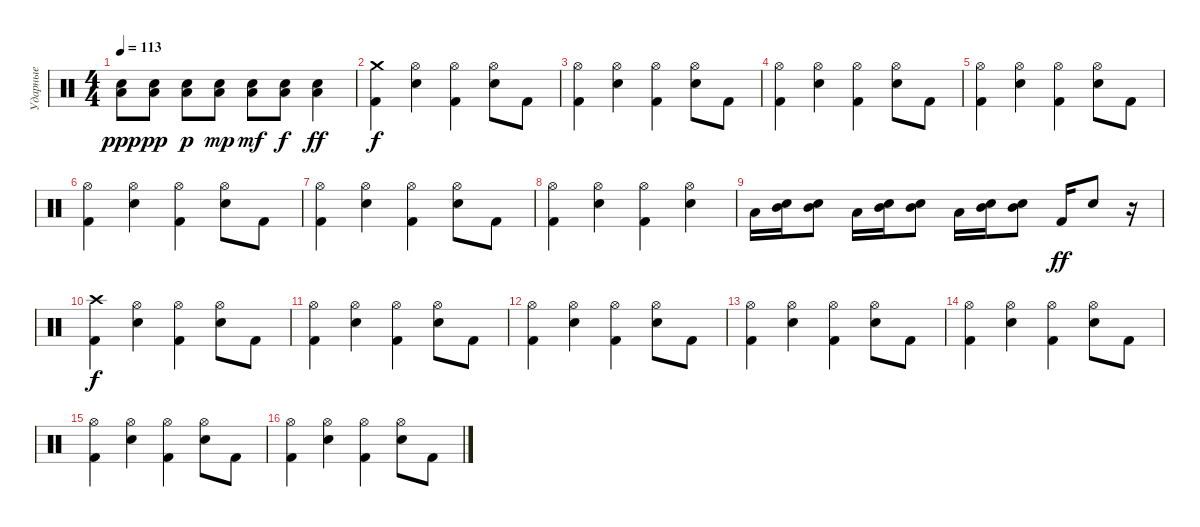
\track ("Ударные" "Ударные") {instrument percussion}
\staff {score}
\articulation defaults
\ts (4 4)
\tempo 113
\clef neutral
\ks c
("Electric Snare (hit)" "Low Tom (hit)").8{dy ppp} ("Electric Snare (hit)" "Low Tom (hit)").8{dy pp} ("Electric Snare (hit)" "Low Tom (hit)").8{dy p} ("Electric Snare (hit)" "Low Tom (hit)").8{dy mp} ("Electric Snare (hit)" "Low Tom (hit)").8{dy mf} ("Electric Snare (hit)" "Low Tom (hit)").8{dy f} ("Electric Snare (hit)" "Low Tom (hit)").4{dy ff} |
("Kick (hit) 2" "Crash medium (hit)").4{dy f} ("Electric Snare (hit)" "Hi-Hat (open)").4 ("Kick (hit) 2" "Hi-Hat (open)").4 ("Electric Snare (hit)" "Hi-Hat (open)").8 "Kick (hit) 2".8 |
("Kick (hit) 2" "Hi-Hat (open)").4 ("Electric Snare (hit)" "Hi-Hat (open)").4 ("Kick (hit) 2" "Hi-Hat (open)").4 ("Electric Snare (hit)" "Hi-Hat (open)").8 "Kick (hit) 2".8 |
("Kick (hit) 2" "Hi-Hat (open)").4 ("Electric Snare (hit)" "Hi-Hat (open)").4 ("Kick (hit) 2" "Hi-Hat (open)").4 ("Electric Snare (hit)" "Hi-Hat (open)").8 "Kick (hit) 2".8 |
("Kick (hit) 2" "Hi-Hat (open)").4 ("Electric Snare (hit)" "Hi-Hat (open)").4 ("Kick (hit) 2" "Hi-Hat (open)").4 ("Electric Snare (hit)" "Hi-Hat (open)").8 "Kick (hit) 2".8 |
("Kick (hit) 2" "Hi-Hat (open)").4 ("Electric Snare (hit)" "Hi-Hat (open)").4 ("Kick (hit) 2" "Hi-Hat (open)").4 ("Electric Snare (hit)" "Hi-Hat (open)").8 "Kick (hit) 2".8 |
("Kick (hit) 2" "Hi-Hat (open)").4 ("Electric Snare (hit)" "Hi-Hat (open)").4 ("Kick (hit) 2" "Hi-Hat (open)").4 ("Electric Snare (hit)" "Hi-Hat (open)").8 "Kick (hit) 2".8 |
("Kick (hit) 2" "Hi-Hat (open)").4 ("Electric Snare (hit)" "Hi-Hat (open)").4 ("Kick (hit) 2" "Hi-Hat (open)").4 ("Electric Snare (hit)" "Hi-Hat (open)").4 |
"Low Tom (hit)".16 ("Mid Tom (hit)" "Electric Snare (hit)").16 ("Mid Tom (hit)" "Electric Snare (hit)").8 "Low Tom (hit)".16 ("Mid Tom (hit)" "Electric Snare (hit)").16 ("Mid Tom (hit)" "Electric Snare (hit)").8 "Low Tom (hit)".16 ("Mid Tom (hit)" "Electric Snare (hit)").16 ("Mid Tom (hit)" "Electric Snare (hit)").8 "Kick (hit) 2".16{dy ff} "Electric Snare (hit)".8 r.16 |
("Kick (hit) 2" "Crash high (hit)").4{dy f} ("Electric Snare (hit)" "Hi-Hat (open)").4 ("Kick (hit) 2" "Hi-Hat (open)").4 ("Electric Snare (hit)" "Hi-Hat (open)").8 "Kick (hit) 2".8 |
("Kick (hit) 2" "Hi-Hat (open)").4 ("Electric Snare (hit)" "Hi-Hat (open)").4 ("Kick (hit) 2" "Hi-Hat (open)").4 ("Electric Snare (hit)" "Hi-Hat (open)").8 "Kick (hit) 2".8 |
("Kick (hit) 2" "Hi-Hat (open)").4 ("Electric Snare (hit)" "Hi-Hat (open)").4 ("Kick (hit) 2" "Hi-Hat (open)").4 ("Electric Snare (hit)" "Hi-Hat (open)").8 "Kick (hit) 2".8 |
("Kick (hit) 2" "Hi-Hat (open)").4 ("Electric Snare (hit)" "Hi-Hat (open)").4 ("Kick (hit) 2" "Hi-Hat (open)").4 ("Electric Snare (hit)" "Hi-Hat (open)").8 "Kick (hit) 2".8 |
("Kick (hit) 2" "Hi-Hat (open)").4 ("Electric Snare (hit)" "Hi-Hat (open)").4 ("Kick (hit) 2" "Hi-Hat (open)").4 ("Electric Snare (hit)" "Hi-Hat (open)").8 "Kick (hit) 2".8 |
("Kick (hit) 2" "Hi-Hat (open)").4 ("Electric Snare (hit)" "Hi-Hat (open)").4 ("Kick (hit) 2" "Hi-Hat (open)").4 ("Electric Snare (hit)" "Hi-Hat (open)").8 "Kick (hit) 2".8 |
("Kick (hit) 2" "Hi-Hat (open)").4 ("Electric Snare (hit)" "Hi-Hat (open)").4 ("Kick (hit) 2" "Hi-Hat (open)").4 ("Electric Snare (hit)" "Hi-Hat (open)").8 "Kick (hit) 2".8
